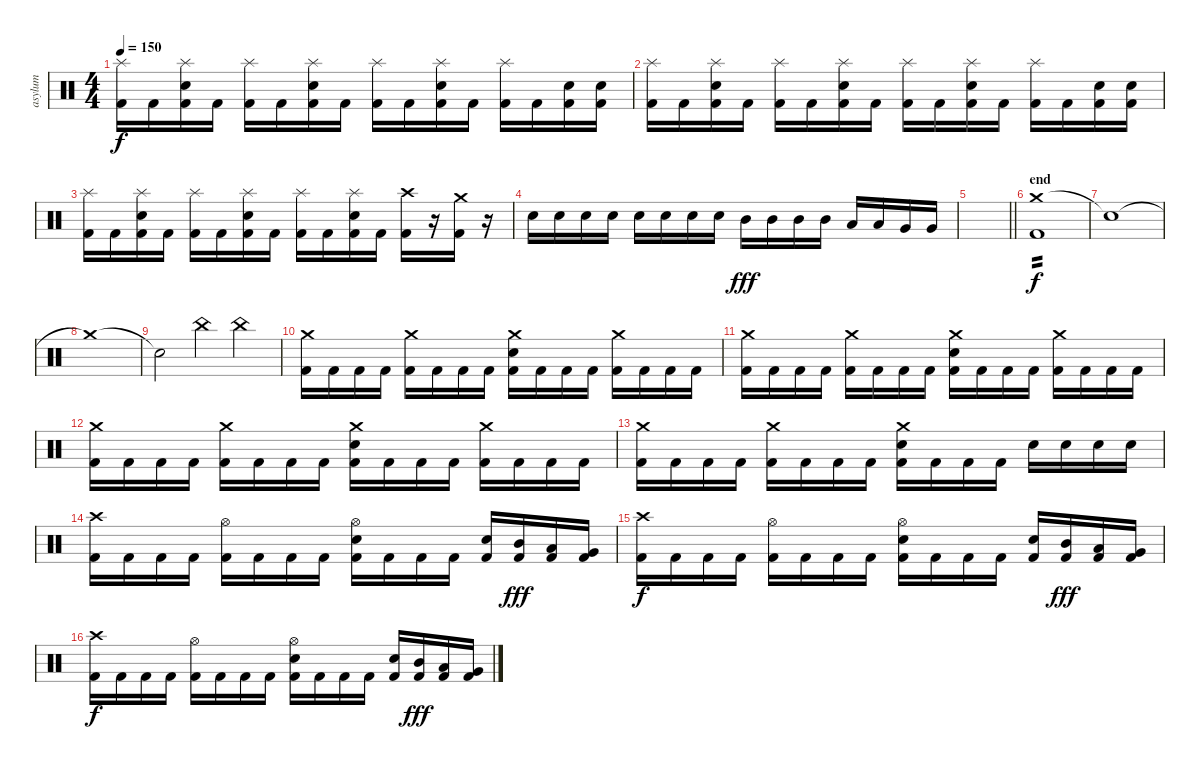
\track ("asylum" "asylum") {instrument percussion}
\staff {score}
\articulation defaults
\ts (4 4)
\tempo 150
\clef neutral
\ks c
("Splash (hit)" "Kick (hit) 2").16{dy f} "Kick (hit) 2".16 ("Splash (hit)" "Electric Snare (hit)" "Kick (hit) 2").16 "Kick (hit) 2".16 ("Splash (hit)" "Kick (hit) 2").16 "Kick (hit) 2".16 ("Splash (hit)" "Electric Snare (hit)" "Kick (hit) 2").16 "Kick (hit) 2".16 ("Splash (hit)" "Kick (hit) 2").16 "Kick (hit) 2".16 ("Splash (hit)" "Electric Snare (hit)" "Kick (hit) 2").16 "Kick (hit) 2".16 ("Splash (hit)" "Kick (hit) 2").16 "Kick (hit) 2".16 ("Electric Snare (hit)" "Kick (hit) 2").16 ("Electric Snare (hit)" "Kick (hit) 2").16 |
("Splash (hit)" "Kick (hit) 2").16 "Kick (hit) 2".16 ("Splash (hit)" "Electric Snare (hit)" "Kick (hit) 2").16 "Kick (hit) 2".16 ("Splash (hit)" "Kick (hit) 2").16 "Kick (hit) 2".16 ("Splash (hit)" "Electric Snare (hit)" "Kick (hit) 2").16 "Kick (hit) 2".16 ("Splash (hit)" "Kick (hit) 2").16 "Kick (hit) 2".16 ("Splash (hit)" "Electric Snare (hit)" "Kick (hit) 2").16 "Kick (hit) 2".16 ("Splash (hit)" "Kick (hit) 2").16 "Kick (hit) 2".16 ("Electric Snare (hit)" "Kick (hit) 2").16 ("Electric Snare (hit)" "Kick (hit) 2").16 |
("Splash (hit)" "Kick (hit) 2").16 "Kick (hit) 2".16 ("Splash (hit)" "Electric Snare (hit)" "Kick (hit) 2").16 "Kick (hit) 2".16 ("Splash (hit)" "Kick (hit) 2").16 "Kick (hit) 2".16 ("Splash (hit)" "Electric Snare (hit)" "Kick (hit) 2").16 "Kick (hit) 2".16 ("Splash (hit)" "Kick (hit) 2").16 "Kick (hit) 2".16 ("Splash (hit)" "Electric Snare (hit)" "Kick (hit) 2").16 "Kick (hit) 2".16 ("Crash high (hit)" "Kick (hit) 2").16 r.16 ("Crash medium (hit)" "Kick (hit) 2").16 r.16 |
"Electric Snare (hit)".16 "Electric Snare (hit)".16 "Electric Snare (hit)".16 "Electric Snare (hit)".16 "Electric Snare (hit)".16 "Electric Snare (hit)".16 "Electric Snare (hit)".16 "Electric Snare (hit)".16 "Mid Tom (hit)".16{dy fff} "Mid Tom (hit)".16 "Mid Tom (hit)".16 "Mid Tom (hit)".16 "Low Tom (hit)".16 "Low Tom (hit)".16 "Very Low Tom (hit)".16 "Very Low Tom (hit)".16 |
\barLineRight lightlight
|
\section ("" "end")
("Crash medium (hit)" "Kick (hit) 2").1{tp 2 dy f} |
"Snare (hit)"{t}.1 |
"Crash medium (hit)"{t}.1 |
"Snare (hit)"{t}.2 "China (hit)".4 "China (hit)".4 |
("Crash medium (hit)" "Kick (hit) 2").16 "Kick (hit) 2".16 "Kick (hit) 2".16 "Kick (hit) 2".16 ("Crash medium (hit)" "Kick (hit) 2").16 "Kick (hit) 2".16 "Kick (hit) 2".16 "Kick (hit) 2".16 ("Crash medium (hit)" "Electric Snare (hit)" "Kick (hit) 2").16 "Kick (hit) 2".16 "Kick (hit) 2".16 "Kick (hit) 2".16 ("Crash medium (hit)" "Kick (hit) 2").16 "Kick (hit) 2".16 "Kick (hit) 2".16 "Kick (hit) 2".16 |
("Crash medium (hit)" "Kick (hit) 2").16 "Kick (hit) 2".16 "Kick (hit) 2".16 "Kick (hit) 2".16 ("Crash medium (hit)" "Kick (hit) 2").16 "Kick (hit) 2".16 "Kick (hit) 2".16 "Kick (hit) 2".16 ("Crash medium (hit)" "Electric Snare (hit)" "Kick (hit) 2").16 "Kick (hit) 2".16 "Kick (hit) 2".16 "Kick (hit) 2".16 ("Crash medium (hit)" "Kick (hit) 2").16 "Kick (hit) 2".16 "Kick (hit) 2".16 "Kick (hit) 2".16 |
("Crash medium (hit)" "Kick (hit) 2").16 "Kick (hit) 2".16 "Kick (hit) 2".16 "Kick (hit) 2".16 ("Crash medium (hit)" "Kick (hit) 2").16 "Kick (hit) 2".16 "Kick (hit) 2".16 "Kick (hit) 2".16 ("Crash medium (hit)" "Electric Snare (hit)" "Kick (hit) 2").16 "Kick (hit) 2".16 "Kick (hit) 2".16 "Kick (hit) 2".16 ("Crash medium (hit)" "Kick (hit) 2").16 "Kick (hit) 2".16 "Kick (hit) 2".16 "Kick (hit) 2".16 |
("Crash medium (hit)" "Kick (hit) 2").16 "Kick (hit) 2".16 "Kick (hit) 2".16 "Kick (hit) 2".16 ("Crash medium (hit)" "Kick (hit) 2").16 "Kick (hit) 2".16 "Kick (hit) 2".16 "Kick (hit) 2".16 ("Crash medium (hit)" "Electric Snare (hit)" "Kick (hit) 2").16 "Kick (hit) 2".16 "Kick (hit) 2".16 "Kick (hit) 2".16 "Electric Snare (hit)".16 "Electric Snare (hit)".16 "Electric Snare (hit)".16 "Electric Snare (hit)".16 |
("Crash high (hit)" "Kick (hit) 2").16 "Kick (hit) 2".16 "Kick (hit) 2".16 "Kick (hit) 2".16 ("Hi-Hat (open)" "Kick (hit) 2").16 "Kick (hit) 2".16 "Kick (hit) 2".16 "Kick (hit) 2".16 ("Hi-Hat (open)" "Electric Snare (hit)" "Kick (hit) 2").16 "Kick (hit) 2".16 "Kick (hit) 2".16 "Kick (hit) 2".16 ("Electric Snare (hit)" "Kick (hit) 2").16 ("Mid Tom (hit)" "Kick (hit) 2").16{dy fff} ("Low Tom (hit)" "Kick (hit) 2").16 ("Very Low Tom (hit)" "Kick (hit) 2").16 |
("Crash high (hit)" "Kick (hit) 2").16{dy f} "Kick (hit) 2".16 "Kick (hit) 2".16 "Kick (hit) 2".16 ("Hi-Hat (open)" "Kick (hit) 2").16 "Kick (hit) 2".16 "Kick (hit) 2".16 "Kick (hit) 2".16 ("Hi-Hat (open)" "Electric Snare (hit)" "Kick (hit) 2").16 "Kick (hit) 2".16 "Kick (hit) 2".16 "Kick (hit) 2".16 ("Electric Snare (hit)" "Kick (hit) 2").16 ("Mid Tom (hit)" "Kick (hit) 2").16{dy fff} ("Low Tom (hit)" "Kick (hit) 2").16 ("Very Low Tom (hit)" "Kick (hit) 2").16 |
("Crash high (hit)" "Kick (hit) 2").16{dy f} "Kick (hit) 2".16 "Kick (hit) 2".16 "Kick (hit) 2".16 ("Hi-Hat (open)" "Kick (hit) 2").16 "Kick (hit) 2".16 "Kick (hit) 2".16 "Kick (hit) 2".16 ("Hi-Hat (open)" "Electric Snare (hit)" "Kick (hit) 2").16 "Kick (hit) 2".16 "Kick (hit) 2".16 "Kick (hit) 2".16 ("Electric Snare (hit)" "Kick (hit) 2").16 ("Mid Tom (hit)" "Kick (hit) 2").16{dy fff} ("Low Tom (hit)" "Kick (hit) 2").16 ("Very Low Tom (hit)" "Kick (hit) 2").16
